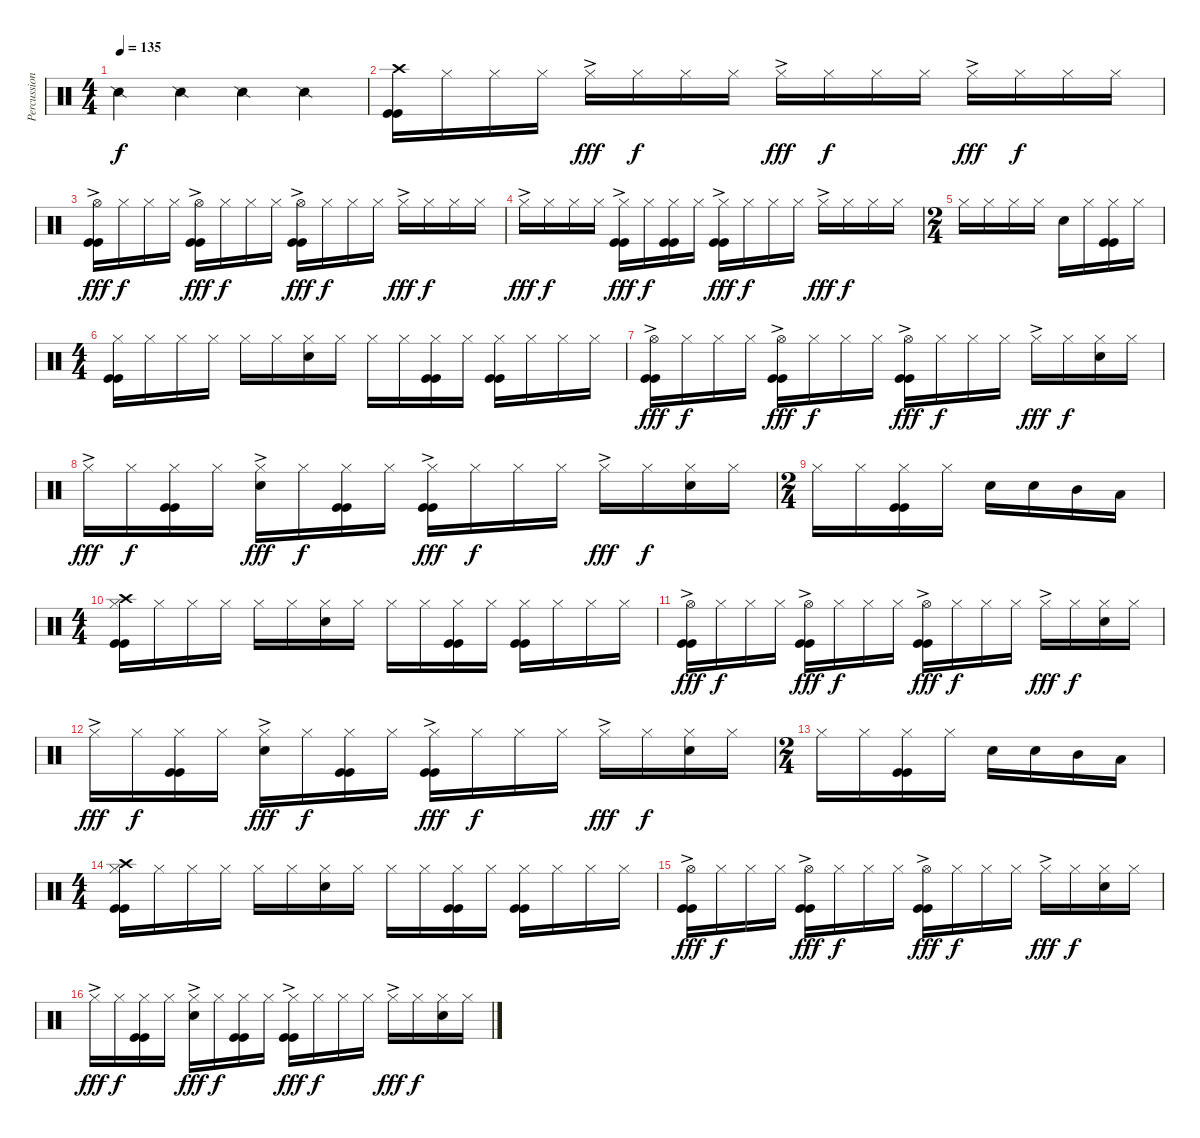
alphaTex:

\track ("Percussion" "Percussion") {instrument percussion}
\staff {score}
\articulation defaults
\ts (4 4)
\tempo 135
\clef neutral
\ks c "Snare (side stick) 2".4{dy f} "Snare (side stick) 2".4 "Snare (side stick) 2".4 "Snare (side stick) 2".4
|
("Crash high (hit)" "Kick (hit)" "Kick (hit)").16 "Hi-Hat (closed)".16 "Hi-Hat (closed)".16 "Hi-Hat (closed)".16 "Hi-Hat (closed)"{ac}.16{dy fff} "Hi-Hat (closed)".16{dy f} "Hi-Hat (closed)".16 "Hi-Hat (closed)".16 "Hi-Hat (closed)"{ac}.16{dy fff} "Hi-Hat (closed)".16{dy f} "Hi-Hat (closed)".16 "Hi-Hat (closed)".16 "Hi-Hat (closed)"{ac}.16{dy fff} "Hi-Hat (closed)".16{dy f} "Hi-Hat (closed)".16 "Hi-Hat (closed)".16 |
("Hi-Hat (open)"{ac} "Kick (hit)" "Kick (hit)"{ac}).16{dy fff} "Hi-Hat (closed)".16{dy f} "Hi-Hat (closed)".16 "Hi-Hat (closed)".16 ("Hi-Hat (open)"{ac} "Kick (hit)" "Kick (hit)"{ac}).16{dy fff} "Hi-Hat (closed)".16{dy f} "Hi-Hat (closed)".16 "Hi-Hat (closed)".16 ("Hi-Hat (open)"{ac} "Kick (hit)" "Kick (hit)"{ac}).16{dy fff} "Hi-Hat (closed)".16{dy f} "Hi-Hat (closed)".16 "Hi-Hat (closed)".16 "Hi-Hat (closed)"{ac}.16{dy fff} "Hi-Hat (closed)".16{dy f} "Hi-Hat (closed)".16 "Hi-Hat (closed)".16 |
"Hi-Hat (closed)"{ac}.16{dy fff} "Hi-Hat (closed)".16{dy f} "Hi-Hat (closed)".16 "Hi-Hat (closed)".16 ("Hi-Hat (closed)"{ac} "Kick (hit)" "Kick (hit)").16{dy fff} "Hi-Hat (closed)".16{dy f} ("Hi-Hat (closed)" "Kick (hit)" "Kick (hit)").16 "Hi-Hat (closed)".16 ("Hi-Hat (closed)"{ac} "Kick (hit)" "Kick (hit)").16{dy fff} "Hi-Hat (closed)".16{dy f} "Hi-Hat (closed)".16 "Hi-Hat (closed)".16 "Hi-Hat (closed)"{ac}.16{dy fff} "Hi-Hat (closed)".16{dy f} "Hi-Hat (closed)".16 "Hi-Hat (closed)".16 |
\ts (2 4)
"Hi-Hat (closed)".16 "Hi-Hat (closed)".16 "Hi-Hat (closed)".16 "Hi-Hat (closed)".16 "Electric Snare (hit)".16 "Hi-Hat (closed)".16 ("Hi-Hat (closed)" "Kick (hit)" "Kick (hit)").16 "Hi-Hat (closed)".16 |
\ts (4 4)
("Hi-Hat (closed)" "Kick (hit)" "Kick (hit)").16 "Hi-Hat (closed)".16 "Hi-Hat (closed)".16 "Hi-Hat (closed)".16 "Hi-Hat (closed)".16 "Hi-Hat (closed)".16 ("Hi-Hat (closed)" "Electric Snare (hit)").16 "Hi-Hat (closed)".16 "Hi-Hat (closed)".16 "Hi-Hat (closed)".16 ("Hi-Hat (closed)" "Kick (hit)" "Kick (hit)").16 "Hi-Hat (closed)".16 ("Hi-Hat (closed)" "Kick (hit)" "Kick (hit)").16 "Hi-Hat (closed)".16 "Hi-Hat (closed)".16 "Hi-Hat (closed)".16 |
("Hi-Hat (open)"{ac} "Kick (hit)" "Kick (hit)"{ac}).16{dy fff} "Hi-Hat (closed)".16{dy f} "Hi-Hat (closed)".16 "Hi-Hat (closed)".16 ("Hi-Hat (open)"{ac} "Kick (hit)" "Kick (hit)"{ac}).16{dy fff} "Hi-Hat (closed)".16{dy f} "Hi-Hat (closed)".16 "Hi-Hat (closed)".16 ("Hi-Hat (open)"{ac} "Kick (hit)" "Kick (hit)"{ac}).16{dy fff} "Hi-Hat (closed)".16{dy f} "Hi-Hat (closed)".16 "Hi-Hat (closed)".16 "Hi-Hat (closed)"{ac}.16{dy fff} "Hi-Hat (closed)".16{dy f} ("Hi-Hat (closed)" "Electric Snare (hit)").16 "Hi-Hat (closed)".16 |
"Hi-Hat (closed)"{ac}.16{dy fff} "Hi-Hat (closed)".16{dy f} ("Hi-Hat (closed)" "Kick (hit)" "Kick (hit)").16 "Hi-Hat (closed)".16 ("Hi-Hat (closed)"{ac} "Electric Snare (hit)").16{dy fff} "Hi-Hat (closed)".16{dy f} ("Hi-Hat (closed)" "Kick (hit)" "Kick (hit)").16 "Hi-Hat (closed)".16 ("Hi-Hat (closed)"{ac} "Kick (hit)" "Kick (hit)"{ac}).16{dy fff} "Hi-Hat (closed)".16{dy f} "Hi-Hat (closed)".16 "Hi-Hat (closed)".16 "Hi-Hat (closed)"{ac}.16{dy fff} "Hi-Hat (closed)".16{dy f} ("Hi-Hat (closed)" "Electric Snare (hit)").16 "Hi-Hat (closed)".16 |
\ts (2 4)
"Hi-Hat (closed)".16 "Hi-Hat (closed)".16 ("Hi-Hat (closed)" "Kick (hit)" "Kick (hit)").16 "Hi-Hat (closed)".16 "Electric Snare (hit)".16 "Electric Snare (hit)".16 "Mid Tom (hit)".16 "Low Tom (hit)".16 |
\ts (4 4)
("Crash high (hit)" "Hi-Hat (closed)" "Kick (hit)" "Kick (hit)").16 "Hi-Hat (closed)".16 "Hi-Hat (closed)".16 "Hi-Hat (closed)".16 "Hi-Hat (closed)".16 "Hi-Hat (closed)".16 ("Hi-Hat (closed)" "Electric Snare (hit)").16 "Hi-Hat (closed)".16 "Hi-Hat (closed)".16 "Hi-Hat (closed)".16 ("Hi-Hat (closed)" "Kick (hit)" "Kick (hit)").16 "Hi-Hat (closed)".16 ("Hi-Hat (closed)" "Kick (hit)" "Kick (hit)").16 "Hi-Hat (closed)".16 "Hi-Hat (closed)".16 "Hi-Hat (closed)".16 |
("Hi-Hat (open)"{ac} "Kick (hit)" "Kick (hit)"{ac}).16{dy fff} "Hi-Hat (closed)".16{dy f} "Hi-Hat (closed)".16 "Hi-Hat (closed)".16 ("Hi-Hat (open)"{ac} "Kick (hit)" "Kick (hit)"{ac}).16{dy fff} "Hi-Hat (closed)".16{dy f} "Hi-Hat (closed)".16 "Hi-Hat (closed)".16 ("Hi-Hat (open)"{ac} "Kick (hit)" "Kick (hit)"{ac}).16{dy fff} "Hi-Hat (closed)".16{dy f} "Hi-Hat (closed)".16 "Hi-Hat (closed)".16 "Hi-Hat (closed)"{ac}.16{dy fff} "Hi-Hat (closed)".16{dy f} ("Hi-Hat (closed)" "Electric Snare (hit)").16 "Hi-Hat (closed)".16 |
"Hi-Hat (closed)"{ac}.16{dy fff} "Hi-Hat (closed)".16{dy f} ("Hi-Hat (closed)" "Kick (hit)" "Kick (hit)").16 "Hi-Hat (closed)".16 ("Hi-Hat (closed)"{ac} "Electric Snare (hit)").16{dy fff} "Hi-Hat (closed)".16{dy f} ("Hi-Hat (closed)" "Kick (hit)" "Kick (hit)").16 "Hi-Hat (closed)".16 ("Hi-Hat (closed)"{ac} "Kick (hit)" "Kick (hit)"{ac}).16{dy fff} "Hi-Hat (closed)".16{dy f} "Hi-Hat (closed)".16 "Hi-Hat (closed)".16 "Hi-Hat (closed)"{ac}.16{dy fff} "Hi-Hat (closed)".16{dy f} ("Hi-Hat (closed)" "Electric Snare (hit)").16 "Hi-Hat (closed)".16 |
\ts (2 4)
"Hi-Hat (closed)".16 "Hi-Hat (closed)".16 ("Hi-Hat (closed)" "Kick (hit)" "Kick (hit)").16 "Hi-Hat (closed)".16 "Electric Snare (hit)".16 "Electric Snare (hit)".16 "Mid Tom (hit)".16 "Low Tom (hit)".16 |
\ts (4 4)
("Crash high (hit)" "Hi-Hat (closed)" "Kick (hit)" "Kick (hit)").16 "Hi-Hat (closed)".16 "Hi-Hat (closed)".16 "Hi-Hat (closed)".16 "Hi-Hat (closed)".16 "Hi-Hat (closed)".16 ("Hi-Hat (closed)" "Electric Snare (hit)").16 "Hi-Hat (closed)".16 "Hi-Hat (closed)".16 "Hi-Hat (closed)".16 ("Hi-Hat (closed)" "Kick (hit)" "Kick (hit)").16 "Hi-Hat (closed)".16 ("Hi-Hat (closed)" "Kick (hit)" "Kick (hit)").16 "Hi-Hat (closed)".16 "Hi-Hat (closed)".16 "Hi-Hat (closed)".16 |
("Hi-Hat (open)"{ac} "Kick (hit)" "Kick (hit)"{ac}).16{dy fff} "Hi-Hat (closed)".16{dy f} "Hi-Hat (closed)".16 "Hi-Hat (closed)".16 ("Hi-Hat (open)"{ac} "Kick (hit)" "Kick (hit)"{ac}).16{dy fff} "Hi-Hat (closed)".16{dy f} "Hi-Hat (closed)".16 "Hi-Hat (closed)".16 ("Hi-Hat (open)"{ac} "Kick (hit)" "Kick (hit)"{ac}).16{dy fff} "Hi-Hat (closed)".16{dy f} "Hi-Hat (closed)".16 "Hi-Hat (closed)".16 "Hi-Hat (closed)"{ac}.16{dy fff} "Hi-Hat (closed)".16{dy f} ("Hi-Hat (closed)" "Electric Snare (hit)").16 "Hi-Hat (closed)".16 |
"Hi-Hat (closed)"{ac}.16{dy fff} "Hi-Hat (closed)".16{dy f} ("Hi-Hat (closed)" "Kick (hit)" "Kick (hit)").16 "Hi-Hat (closed)".16 ("Hi-Hat (closed)"{ac} "Electric Snare (hit)").16{dy fff} "Hi-Hat (closed)".16{dy f} ("Hi-Hat (closed)" "Kick (hit)" "Kick (hit)").16 "Hi-Hat (closed)".16 ("Hi-Hat (closed)"{ac} "Kick (hit)" "Kick (hit)"{ac}).16{dy fff} "Hi-Hat (closed)".16{dy f} "Hi-Hat (closed)".16 "Hi-Hat (closed)".16 "Hi-Hat (closed)"{ac}.16{dy fff} "Hi-Hat (closed)".16{dy f} ("Hi-Hat (closed)" "Electric Snare (hit)").16 "Hi-Hat (closed)".16
